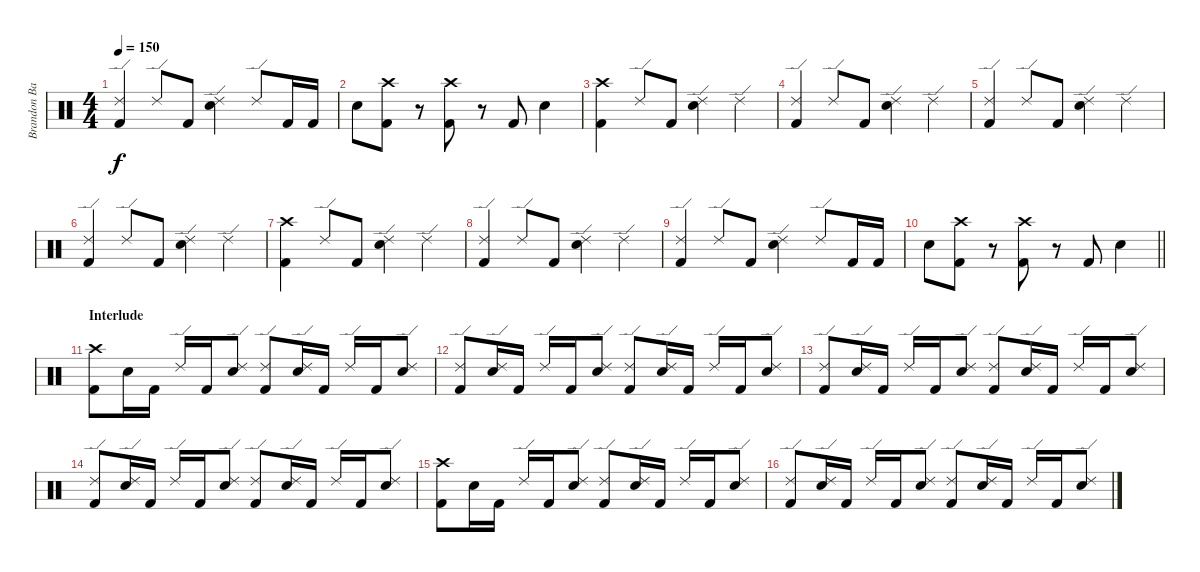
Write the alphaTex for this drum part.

\track ("Brandon Barnes - Drums" "Brandon Ba") {instrument percussion}
\staff {score}
\articulation defaults
\ts (4 4)
\tempo 150
\clef neutral
\ks c
("Kick (hit) 2" "Ride (edge) 2").4{dy f} "Ride (edge) 2".8 "Kick (hit) 2".8 ("Snare (hit) 2" "Ride (edge) 2").4 "Ride (edge) 2".8 "Kick (hit) 2".16 "Kick (hit) 2".16 |
"Snare (hit) 2".8 ("Crash high (hit)" "Kick (hit) 2").8 r.8 ("Kick (hit) 2" "Crash high (hit)").8 r.8 "Kick (hit) 2".8 "Snare (hit) 2".4 |
("Kick (hit) 2" "Crash high (hit)").4 "Ride (edge) 2".8 "Kick (hit) 2".8 ("Snare (hit) 2" "Ride (edge) 2").4 "Ride (edge) 2".4 |
("Kick (hit) 2" "Ride (edge) 2").4 "Ride (edge) 2".8 "Kick (hit) 2".8 ("Snare (hit) 2" "Ride (edge) 2").4 "Ride (edge) 2".4 |
("Kick (hit) 2" "Ride (edge) 2").4 "Ride (edge) 2".8 "Kick (hit) 2".8 ("Snare (hit) 2" "Ride (edge) 2").4 "Ride (edge) 2".4 |
("Kick (hit) 2" "Ride (edge) 2").4 "Ride (edge) 2".8 "Kick (hit) 2".8 ("Snare (hit) 2" "Ride (edge) 2").4 "Ride (edge) 2".4 |
("Kick (hit) 2" "Crash high (hit)").4 "Ride (edge) 2".8 "Kick (hit) 2".8 ("Snare (hit) 2" "Ride (edge) 2").4 "Ride (edge) 2".4 |
("Kick (hit) 2" "Ride (edge) 2").4 "Ride (edge) 2".8 "Kick (hit) 2".8 ("Snare (hit) 2" "Ride (edge) 2").4 "Ride (edge) 2".4 |
("Kick (hit) 2" "Ride (edge) 2").4 "Ride (edge) 2".8 "Kick (hit) 2".8 ("Snare (hit) 2" "Ride (edge) 2").4 "Ride (edge) 2".8 "Kick (hit) 2".16 "Kick (hit) 2".16 |
\barLineRight lightlight "Snare (hit) 2".8
("Crash high (hit)" "Kick (hit) 2").8 r.8 ("Kick (hit) 2" "Crash high (hit)").8 r.8 "Kick (hit) 2".8 "Snare (hit) 2".4 |
\section ("" "Interlude")
("Crash high (hit)" "Kick (hit) 2").8 "Snare (hit) 2".16 "Kick (hit) 2".16 "Ride (edge) 2".16 "Kick (hit) 2".16 ("Snare (hit) 2" "Ride (edge) 2").8 ("Ride (edge) 2" "Kick (hit) 2").8 ("Snare (hit) 2" "Ride (edge) 2").16 "Kick (hit) 2".16 "Ride (edge) 2".16 "Kick (hit) 2".16 ("Snare (hit) 2" "Ride (edge) 2").8 |
("Ride (edge) 2" "Kick (hit) 2").8 ("Snare (hit) 2" "Ride (edge) 2").16 "Kick (hit) 2".16 "Ride (edge) 2".16 "Kick (hit) 2".16 ("Snare (hit) 2" "Ride (edge) 2").8 ("Ride (edge) 2" "Kick (hit) 2").8 ("Snare (hit) 2" "Ride (edge) 2").16 "Kick (hit) 2".16 "Ride (edge) 2".16 "Kick (hit) 2".16 ("Snare (hit) 2" "Ride (edge) 2").8 |
("Ride (edge) 2" "Kick (hit) 2").8 ("Snare (hit) 2" "Ride (edge) 2").16 "Kick (hit) 2".16 "Ride (edge) 2".16 "Kick (hit) 2".16 ("Snare (hit) 2" "Ride (edge) 2").8 ("Ride (edge) 2" "Kick (hit) 2").8 ("Snare (hit) 2" "Ride (edge) 2").16 "Kick (hit) 2".16 "Ride (edge) 2".16 "Kick (hit) 2".16 ("Snare (hit) 2" "Ride (edge) 2").8 |
("Ride (edge) 2" "Kick (hit) 2").8 ("Snare (hit) 2" "Ride (edge) 2").16 "Kick (hit) 2".16 "Ride (edge) 2".16 "Kick (hit) 2".16 ("Snare (hit) 2" "Ride (edge) 2").8 ("Ride (edge) 2" "Kick (hit) 2").8 ("Snare (hit) 2" "Ride (edge) 2").16 "Kick (hit) 2".16 "Ride (edge) 2".16 "Kick (hit) 2".16 ("Snare (hit) 2" "Ride (edge) 2").8 |
("Crash high (hit)" "Kick (hit) 2").8 "Snare (hit) 2".16 "Kick (hit) 2".16 "Ride (edge) 2".16 "Kick (hit) 2".16 ("Snare (hit) 2" "Ride (edge) 2").8 ("Ride (edge) 2" "Kick (hit) 2").8 ("Snare (hit) 2" "Ride (edge) 2").16 "Kick (hit) 2".16 "Ride (edge) 2".16 "Kick (hit) 2".16 ("Snare (hit) 2" "Ride (edge) 2").8 |
("Ride (edge) 2" "Kick (hit) 2").8 ("Snare (hit) 2" "Ride (edge) 2").16 "Kick (hit) 2".16 "Ride (edge) 2".16 "Kick (hit) 2".16 ("Snare (hit) 2" "Ride (edge) 2").8 ("Ride (edge) 2" "Kick (hit) 2").8 ("Snare (hit) 2" "Ride (edge) 2").16 "Kick (hit) 2".16 "Ride (edge) 2".16 "Kick (hit) 2".16 ("Snare (hit) 2" "Ride (edge) 2").8
